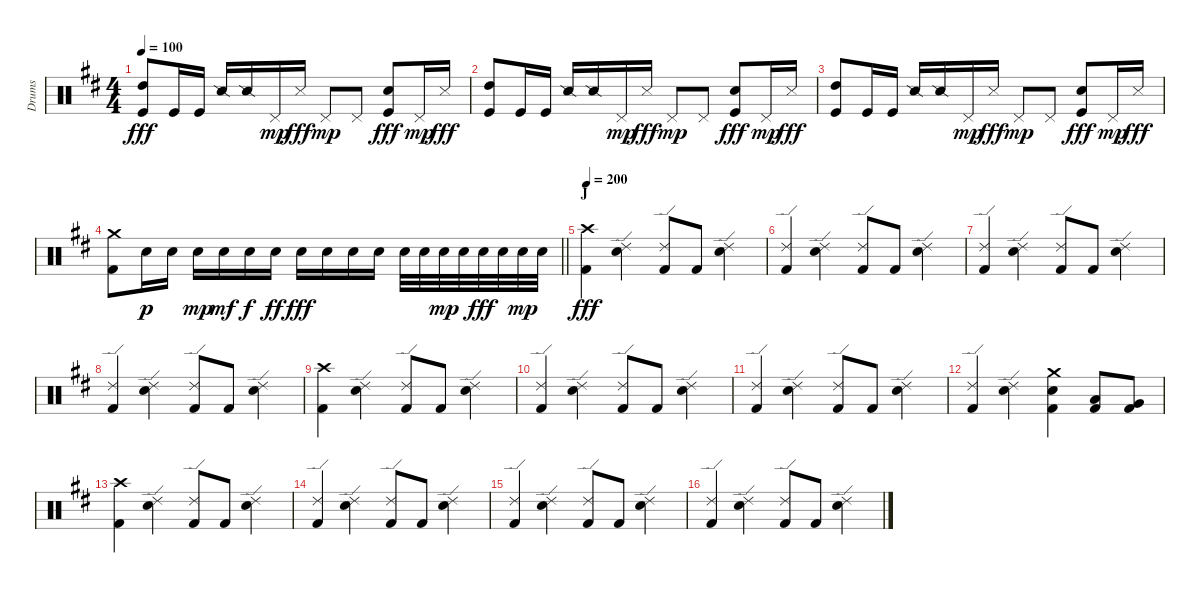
\track ("Drums" "Drums") {instrument percussion}
\staff {score}
\articulation defaults
\ts (4 4)
\tempo 100
\clef neutral
\ks d
("High Tom (hit)" "Kick (hit)").8{dy fff} "Kick (hit)".16 "Kick (hit)".16 "Snare (side stick) 2".16 "Snare (side stick) 2".16 "Pedal Hi-Hat (hit)".16{dy mp} "Snare (side stick) 3".16{dy fff} "Pedal Hi-Hat (hit)".8{dy mp} "Pedal Hi-Hat (hit)".8 ("Electric Snare (hit)" "Kick (hit)").8{dy fff} "Pedal Hi-Hat (hit)".16{dy mp} "Snare (side stick) 3".16{dy fff} |
("High Tom (hit)" "Kick (hit)").8 "Kick (hit)".16 "Kick (hit)".16 "Snare (side stick) 2".16 "Snare (side stick) 2".16 "Pedal Hi-Hat (hit)".16{dy mp} "Snare (side stick) 3".16{dy fff} "Pedal Hi-Hat (hit)".8{dy mp} "Pedal Hi-Hat (hit)".8 ("Electric Snare (hit)" "Kick (hit)").8{dy fff} "Pedal Hi-Hat (hit)".16{dy mp} "Snare (side stick) 3".16{dy fff} |
("High Tom (hit)" "Kick (hit)").8 "Kick (hit)".16 "Kick (hit)".16 "Snare (side stick) 2".16 "Snare (side stick) 2".16 "Pedal Hi-Hat (hit)".16{dy mp} "Snare (side stick) 3".16{dy fff} "Pedal Hi-Hat (hit)".8{dy mp} "Pedal Hi-Hat (hit)".8{txt ""} ("Electric Snare (hit)" "Kick (hit)").8{dy fff} "Pedal Hi-Hat (hit)".16{dy mp} "Snare (side stick) 3".16{dy fff} |
\barLineRight lightlight
("Crash medium (hit)" "Kick (hit) 2").8 "Snare (hit) 2".16{dy p} "Snare (hit) 2".16 "Snare (hit) 2".16{dy mp} "Snare (hit) 2".16{dy mf} "Snare (hit) 2".16{dy f} "Snare (hit) 2".16{dy ff} "Snare (hit) 2".16{dy fff} "Snare (hit) 2".16 "Snare (hit) 2".16 "Snare (hit) 2".16 "Snare (hit) 2".32 "Snare (hit) 2".32 "Snare (hit) 2".32{dy mp} "Snare (hit) 2".32 "Snare (hit) 2".32{dy fff} "Snare (hit) 2".32 "Snare (hit) 2".32{dy mp} "Snare (hit) 2".32 |
\section ("" "J")
\tempo 200
("Crash high (hit)" "Kick (hit) 2").4{dy fff} ("Ride (edge) 2" "Snare (hit) 2").4 ("Ride (edge) 2" "Kick (hit) 2").8 "Kick (hit) 2".8 ("Ride (edge) 2" "Snare (hit) 2").4 |
("Ride (edge) 2" "Kick (hit) 2").4 ("Ride (edge) 2" "Snare (hit) 2").4 ("Ride (edge) 2" "Kick (hit) 2").8 "Kick (hit) 2".8 ("Ride (edge) 2" "Snare (hit) 2").4 |
("Ride (edge) 2" "Kick (hit) 2").4 ("Ride (edge) 2" "Snare (hit) 2").4 ("Ride (edge) 2" "Kick (hit) 2").8 "Kick (hit) 2".8 ("Ride (edge) 2" "Snare (hit) 2").4 |
("Ride (edge) 2" "Kick (hit) 2").4 ("Ride (edge) 2" "Snare (hit) 2").4 ("Ride (edge) 2" "Kick (hit) 2").8 "Kick (hit) 2".8 ("Ride (edge) 2" "Snare (hit) 2").4 |
("Crash high (hit)" "Kick (hit) 2").4 ("Ride (edge) 2" "Snare (hit) 2").4 ("Ride (edge) 2" "Kick (hit) 2").8 "Kick (hit) 2".8 ("Ride (edge) 2" "Snare (hit) 2").4 |
("Ride (edge) 2" "Kick (hit) 2").4 ("Ride (edge) 2" "Snare (hit) 2").4 ("Ride (edge) 2" "Kick (hit) 2").8 "Kick (hit) 2".8 ("Ride (edge) 2" "Snare (hit) 2").4 |
("Ride (edge) 2" "Kick (hit) 2").4 ("Ride (edge) 2" "Snare (hit) 2").4 ("Ride (edge) 2" "Kick (hit) 2").8 "Kick (hit) 2".8 ("Ride (edge) 2" "Snare (hit) 2").4 |
("Ride (edge) 2" "Kick (hit) 2").4 ("Ride (edge) 2" "Snare (hit) 2").4 ("Crash medium (hit)" "Snare (hit) 2" "Kick (hit) 2").4 ("Low Tom (hit)" "Kick (hit) 2").8 ("Very Low Tom (hit)" "Kick (hit) 2").8 |
("Crash high (hit)" "Kick (hit) 2").4 ("Ride (edge) 2" "Snare (hit) 2").4 ("Ride (edge) 2" "Kick (hit) 2").8 "Kick (hit) 2".8 ("Ride (edge) 2" "Snare (hit) 2").4 |
("Ride (edge) 2" "Kick (hit) 2").4 ("Ride (edge) 2" "Snare (hit) 2").4 ("Ride (edge) 2" "Kick (hit) 2").8 "Kick (hit) 2".8 ("Ride (edge) 2" "Snare (hit) 2").4 |
("Ride (edge) 2" "Kick (hit) 2").4 ("Ride (edge) 2" "Snare (hit) 2").4 ("Ride (edge) 2" "Kick (hit) 2").8 "Kick (hit) 2".8 ("Ride (edge) 2" "Snare (hit) 2").4 |
("Ride (edge) 2" "Kick (hit) 2").4 ("Ride (edge) 2" "Snare (hit) 2").4 ("Ride (edge) 2" "Kick (hit) 2").8 "Kick (hit) 2".8 ("Ride (edge) 2" "Snare (hit) 2").4
